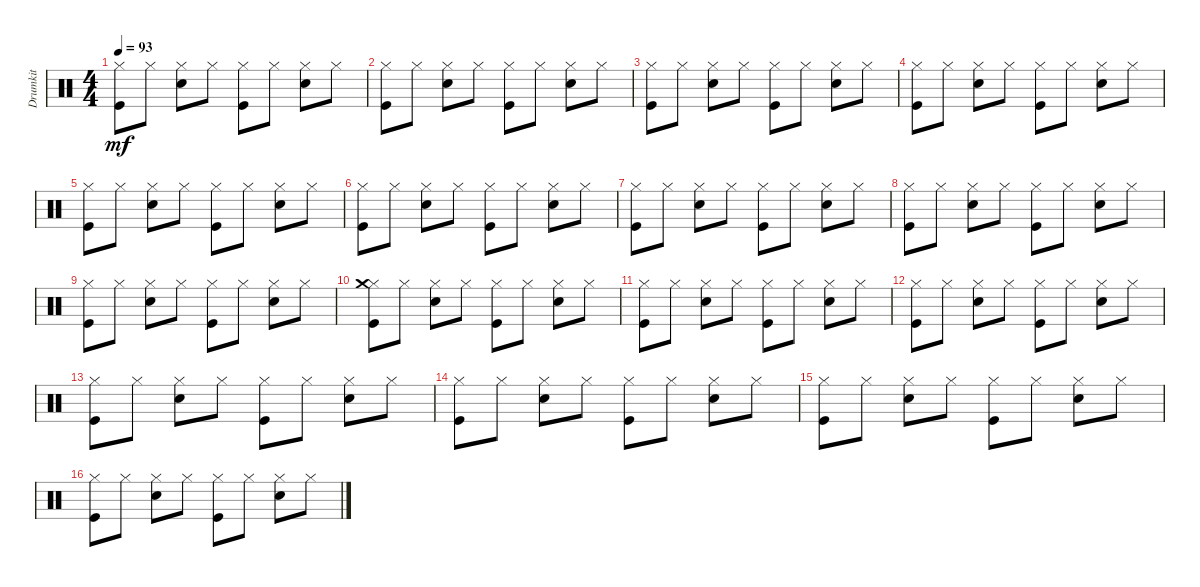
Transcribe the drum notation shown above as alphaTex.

\track ("Drumkit" "Drumkit") {instrument percussion}
\staff {score}
\articulation defaults
\ts (4 4)
\tempo 93
\clef neutral
\ks c
("Kick (hit)" "Hi-Hat (closed)").8{dy mf} "Hi-Hat (closed)".8 ("Hi-Hat (closed)" "Snare (hit) 2").8 "Hi-Hat (closed)".8 ("Hi-Hat (closed)" "Kick (hit)").8 "Hi-Hat (closed)".8 ("Hi-Hat (closed)" "Snare (hit) 2").8 "Hi-Hat (closed)".8 |
("Kick (hit)" "Hi-Hat (closed)").8 "Hi-Hat (closed)".8 ("Hi-Hat (closed)" "Snare (hit) 2").8 "Hi-Hat (closed)".8 ("Hi-Hat (closed)" "Kick (hit)").8 "Hi-Hat (closed)".8 ("Hi-Hat (closed)" "Snare (hit) 2").8 "Hi-Hat (closed)".8 |
("Kick (hit)" "Hi-Hat (closed)").8 "Hi-Hat (closed)".8 ("Hi-Hat (closed)" "Snare (hit) 2").8 "Hi-Hat (closed)".8 ("Hi-Hat (closed)" "Kick (hit)").8 "Hi-Hat (closed)".8 ("Hi-Hat (closed)" "Snare (hit) 2").8 "Hi-Hat (closed)".8 |
("Kick (hit)" "Hi-Hat (closed)").8 "Hi-Hat (closed)".8 ("Hi-Hat (closed)" "Snare (hit) 2").8 "Hi-Hat (closed)".8 ("Hi-Hat (closed)" "Kick (hit)").8 "Hi-Hat (closed)".8 ("Hi-Hat (closed)" "Snare (hit) 2").8 "Hi-Hat (closed)".8 |
("Kick (hit)" "Hi-Hat (closed)").8 "Hi-Hat (closed)".8 ("Hi-Hat (closed)" "Snare (hit) 2").8 "Hi-Hat (closed)".8 ("Hi-Hat (closed)" "Kick (hit)").8 "Hi-Hat (closed)".8 ("Hi-Hat (closed)" "Snare (hit) 2").8 "Hi-Hat (closed)".8 |
("Kick (hit)" "Hi-Hat (closed)").8 "Hi-Hat (closed)".8 ("Hi-Hat (closed)" "Snare (hit) 2").8 "Hi-Hat (closed)".8 ("Hi-Hat (closed)" "Kick (hit)").8 "Hi-Hat (closed)".8 ("Hi-Hat (closed)" "Snare (hit) 2").8 "Hi-Hat (closed)".8 |
("Kick (hit)" "Hi-Hat (closed)").8 "Hi-Hat (closed)".8 ("Hi-Hat (closed)" "Snare (hit) 2").8 "Hi-Hat (closed)".8 ("Hi-Hat (closed)" "Kick (hit)").8 "Hi-Hat (closed)".8 ("Hi-Hat (closed)" "Snare (hit) 2").8 "Hi-Hat (closed)".8 |
("Kick (hit)" "Hi-Hat (closed)").8 "Hi-Hat (closed)".8 ("Hi-Hat (closed)" "Snare (hit) 2").8 "Hi-Hat (closed)".8 ("Hi-Hat (closed)" "Kick (hit)").8 "Hi-Hat (closed)".8 ("Hi-Hat (closed)" "Snare (hit) 2").8 "Hi-Hat (closed)".8 |
("Kick (hit)" "Hi-Hat (closed)").8 "Hi-Hat (closed)".8 ("Hi-Hat (closed)" "Snare (hit) 2").8 "Hi-Hat (closed)".8 ("Hi-Hat (closed)" "Kick (hit)").8 "Hi-Hat (closed)".8 ("Hi-Hat (closed)" "Snare (hit) 2").8 "Hi-Hat (closed)".8 |
("Kick (hit)" "Hi-Hat (closed)" "Crash medium (hit)").8 "Hi-Hat (closed)".8 ("Hi-Hat (closed)" "Snare (hit) 2").8 "Hi-Hat (closed)".8 ("Hi-Hat (closed)" "Kick (hit)").8 "Hi-Hat (closed)".8 ("Hi-Hat (closed)" "Snare (hit) 2").8 "Hi-Hat (closed)".8 |
("Kick (hit)" "Hi-Hat (closed)").8 "Hi-Hat (closed)".8 ("Hi-Hat (closed)" "Snare (hit) 2").8 "Hi-Hat (closed)".8 ("Hi-Hat (closed)" "Kick (hit)").8 "Hi-Hat (closed)".8 ("Hi-Hat (closed)" "Snare (hit) 2").8 "Hi-Hat (closed)".8 |
("Kick (hit)" "Hi-Hat (closed)").8 "Hi-Hat (closed)".8 ("Hi-Hat (closed)" "Snare (hit) 2").8 "Hi-Hat (closed)".8 ("Hi-Hat (closed)" "Kick (hit)").8 "Hi-Hat (closed)".8 ("Hi-Hat (closed)" "Snare (hit) 2").8 "Hi-Hat (closed)".8 |
("Kick (hit)" "Hi-Hat (closed)").8 "Hi-Hat (closed)".8 ("Hi-Hat (closed)" "Snare (hit) 2").8 "Hi-Hat (closed)".8 ("Hi-Hat (closed)" "Kick (hit)").8 "Hi-Hat (closed)".8 ("Hi-Hat (closed)" "Snare (hit) 2").8 "Hi-Hat (closed)".8 |
("Kick (hit)" "Hi-Hat (closed)").8 "Hi-Hat (closed)".8 ("Hi-Hat (closed)" "Snare (hit) 2").8 "Hi-Hat (closed)".8 ("Hi-Hat (closed)" "Kick (hit)").8 "Hi-Hat (closed)".8 ("Hi-Hat (closed)" "Snare (hit) 2").8 "Hi-Hat (closed)".8 |
("Kick (hit)" "Hi-Hat (closed)").8 "Hi-Hat (closed)".8 ("Hi-Hat (closed)" "Snare (hit) 2").8 "Hi-Hat (closed)".8 ("Hi-Hat (closed)" "Kick (hit)").8 "Hi-Hat (closed)".8 ("Hi-Hat (closed)" "Snare (hit) 2").8 "Hi-Hat (closed)".8 |
("Kick (hit)" "Hi-Hat (closed)").8 "Hi-Hat (closed)".8 ("Hi-Hat (closed)" "Snare (hit) 2").8 "Hi-Hat (closed)".8 ("Hi-Hat (closed)" "Kick (hit)").8 "Hi-Hat (closed)".8 ("Hi-Hat (closed)" "Snare (hit) 2").8 "Hi-Hat (closed)".8
